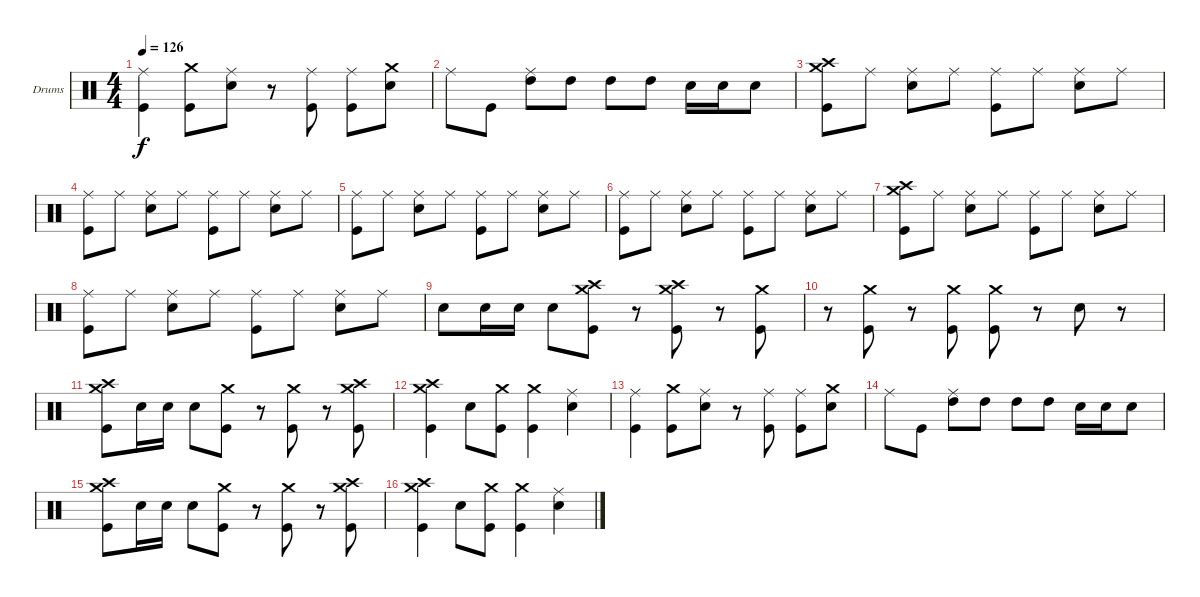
\bracketExtendMode groupsimilarinstruments
\firstSystemTrackNameOrientation horizontal
\otherSystemsTrackNameOrientation horizontal
\track ("Александр Манякин" "Drums") {instrument percussion}
\staff {score}
\articulation defaults
\ts (4 4)
\tempo 126
\clef neutral
\ks c
("Kick (hit)" "Ride (middle)").4{dy f} ("Kick (hit)" "Crash medium (hit)").8 ("Snare (hit) 2" "Ride (middle)").8 r.8 ("Kick (hit)" "Ride (middle)").8 ("Kick (hit)" "Ride (middle)").8 ("Snare (hit) 2" "Crash medium (hit)").8 |
"Ride (middle)".8 "Kick (hit)".8 ("High Tom (hit)" "Ride (middle)").8 "High Tom (hit)".8 "High Tom (hit)".8 "High Tom (hit)".8 "Snare (hit) 2".16 "Snare (hit) 2".16 "Snare (hit) 2".8 |
("Kick (hit)" "Crash medium (hit)" "Crash high (hit)").8 "Ride (middle)".8 ("Snare (hit) 2" "Ride (middle)").8 "Ride (middle)".8 ("Kick (hit)" "Ride (middle)").8 "Ride (middle)".8 ("Snare (hit) 2" "Ride (middle)").8 "Ride (middle)".8 |
("Kick (hit)" "Ride (middle)").8 "Ride (middle)".8 ("Snare (hit) 2" "Ride (middle)").8 "Ride (middle)".8 ("Kick (hit)" "Ride (middle)").8 "Ride (middle)".8 ("Snare (hit) 2" "Ride (middle)").8 "Ride (middle)".8 |
("Kick (hit)" "Ride (middle)").8 "Ride (middle)".8 ("Snare (hit) 2" "Ride (middle)").8 "Ride (middle)".8 ("Kick (hit)" "Ride (middle)").8 "Ride (middle)".8 ("Snare (hit) 2" "Ride (middle)").8 "Ride (middle)".8 |
("Kick (hit)" "Ride (middle)").8 "Ride (middle)".8 ("Snare (hit) 2" "Ride (middle)").8 "Ride (middle)".8 ("Kick (hit)" "Ride (middle)").8 "Ride (middle)".8 ("Snare (hit) 2" "Ride (middle)").8 "Ride (middle)".8 |
("Kick (hit)" "Crash medium (hit)" "Crash high (hit)").8 "Ride (middle)".8 ("Snare (hit) 2" "Ride (middle)").8 "Ride (middle)".8 ("Kick (hit)" "Ride (middle)").8 "Ride (middle)".8 ("Snare (hit) 2" "Ride (middle)").8 "Ride (middle)".8 |
("Kick (hit)" "Ride (middle)").8 "Ride (middle)".8 ("Snare (hit) 2" "Ride (middle)").8 "Ride (middle)".8 ("Kick (hit)" "Ride (middle)").8 "Ride (middle)".8 ("Snare (hit) 2" "Ride (middle)").8 "Ride (middle)".8 |
"Snare (hit) 2".8 "Snare (hit) 2".16 "Snare (hit) 2".16 "Snare (hit) 2".8 ("Kick (hit)" "Crash medium (hit)" "Crash high (hit)").8 r.8 ("Kick (hit)" "Crash medium (hit)" "Crash high (hit)").8 r.8 ("Kick (hit)" "Crash medium (hit)").8 |
r.8 ("Kick (hit)" "Crash medium (hit)").8 r.8 ("Kick (hit)" "Crash medium (hit)").8 ("Kick (hit)" "Crash medium (hit)").8 r.8 "Snare (hit) 2".8 r.8 |
("Kick (hit)" "Crash medium (hit)" "Crash high (hit)").8 "Snare (hit) 2".16 "Snare (hit) 2".16 "Snare (hit) 2".8 ("Kick (hit)" "Crash medium (hit)").8 r.8 ("Kick (hit)" "Crash medium (hit)").8 r.8 ("Kick (hit)" "Crash high (hit)" "Crash medium (hit)").8 |
("Kick (hit)" "Crash medium (hit)" "Crash high (hit)").4 "Snare (hit) 2".8 ("Kick (hit)" "Crash medium (hit)").8 ("Kick (hit)" "Crash medium (hit)").4 ("Snare (hit) 2" "Ride (middle)").4 |
("Kick (hit)" "Ride (middle)").4 ("Kick (hit)" "Crash medium (hit)").8 ("Snare (hit) 2" "Ride (middle)").8 r.8 ("Kick (hit)" "Ride (middle)").8 ("Kick (hit)" "Ride (middle)").8 ("Snare (hit) 2" "Crash medium (hit)").8 |
"Ride (middle)".8 "Kick (hit)".8 ("High Tom (hit)" "Ride (middle)").8 "High Tom (hit)".8 "High Tom (hit)".8 "High Tom (hit)".8 "Snare (hit) 2".16 "Snare (hit) 2".16 "Snare (hit) 2".8 |
("Kick (hit)" "Crash medium (hit)" "Crash high (hit)").8 "Snare (hit) 2".16 "Snare (hit) 2".16 "Snare (hit) 2".8 ("Kick (hit)" "Crash medium (hit)").8 r.8 ("Kick (hit)" "Crash medium (hit)").8 r.8 ("Kick (hit)" "Crash high (hit)" "Crash medium (hit)").8 |
("Kick (hit)" "Crash medium (hit)" "Crash high (hit)").4 "Snare (hit) 2".8 ("Kick (hit)" "Crash medium (hit)").8 ("Kick (hit)" "Crash medium (hit)").4 ("Snare (hit) 2" "Ride (middle)").4
